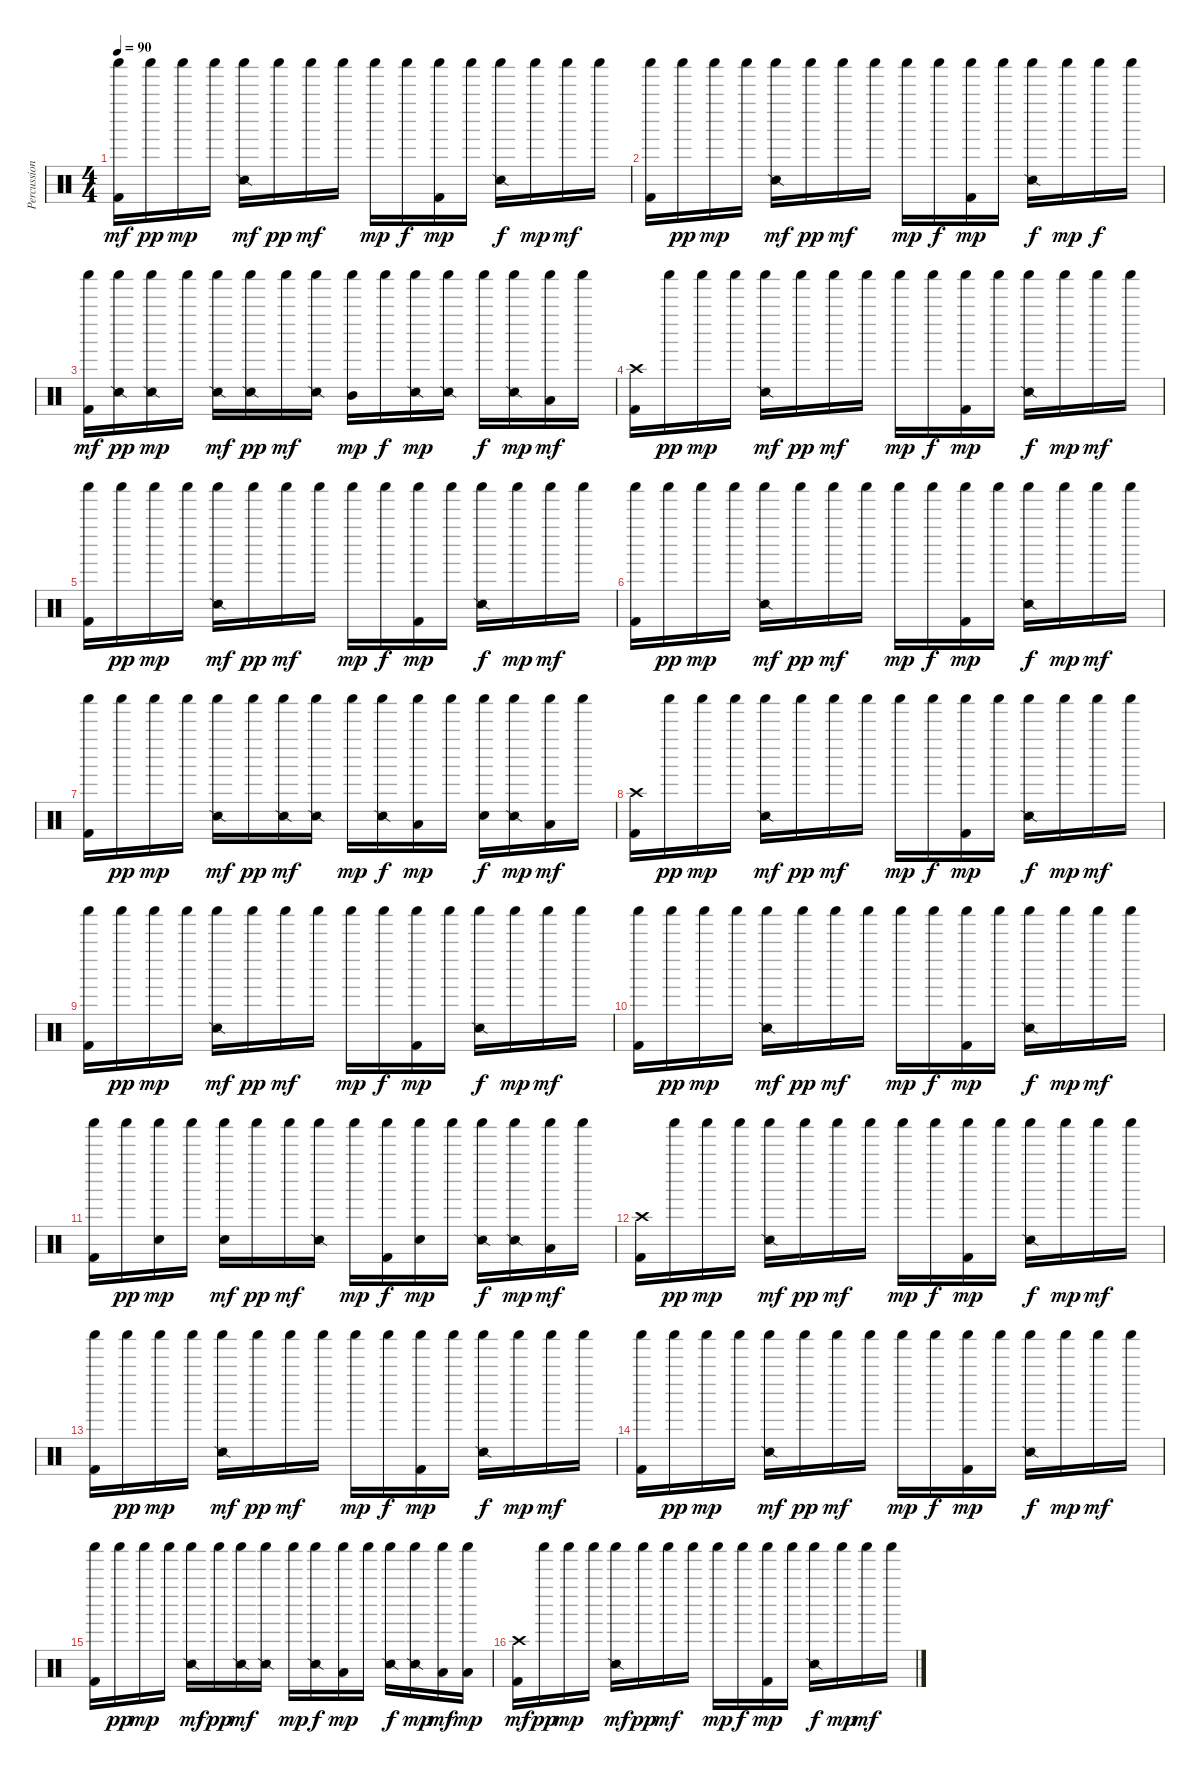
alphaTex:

\track ("Percussions" "Percussion") {instrument percussion}
\staff {score}
\articulation defaults
\ts (4 4)
\tempo 90
\clef neutral
\ks c
("Shaker (hit)" "Kick (hit) 2").16{dy mf} "Shaker (hit)".16{dy pp} "Shaker (hit)".16{dy mp} "Shaker (hit)".16 ("Shaker (hit)" "Snare (side stick) 2").16{dy mf} "Shaker (hit)".16{dy pp} "Shaker (hit)".16{dy mf} "Shaker (hit)".16 "Shaker (hit)".16{dy mp} "Shaker (hit)".16{dy f} ("Shaker (hit)" "Kick (hit) 2").16{dy mp} "Shaker (hit)".16 ("Shaker (hit)" "Snare (side stick) 2").16{dy f} "Shaker (hit)".16{dy mp} "Shaker (hit)".16{dy mf} "Shaker (hit)".16 |
("Shaker (hit)" "Kick (hit) 2").16 "Shaker (hit)".16{dy pp} "Shaker (hit)".16{dy mp} "Shaker (hit)".16 ("Shaker (hit)" "Snare (side stick) 2").16{dy mf} "Shaker (hit)".16{dy pp} "Shaker (hit)".16{dy mf} "Shaker (hit)".16 "Shaker (hit)".16{dy mp} "Shaker (hit)".16{dy f} ("Shaker (hit)" "Kick (hit) 2").16{dy mp} "Shaker (hit)".16 ("Shaker (hit)" "Snare (side stick) 2").16{dy f} "Shaker (hit)".16{dy mp} "Shaker (hit)".16{dy f} "Shaker (hit)".16 |
("Shaker (hit)" "Kick (hit) 2").16{dy mf} ("Shaker (hit)" "Snare (side stick) 2").16{dy pp} ("Shaker (hit)" "Snare (side stick) 2").16{dy mp} "Shaker (hit)".16 ("Shaker (hit)" "Snare (side stick) 2").16{dy mf} ("Shaker (hit)" "Snare (side stick) 2").16{dy pp} "Shaker (hit)".16{dy mf} ("Shaker (hit)" "Snare (side stick) 2").16 ("Shaker (hit)" "Mid Tom (hit)").16{dy mp} "Shaker (hit)".16{dy f} ("Shaker (hit)" "Snare (side stick) 2").16{dy mp} ("Shaker (hit)" "Snare (side stick) 2").16 "Shaker (hit)".16{dy f} ("Shaker (hit)" "Snare (side stick) 2").16{dy mp} ("Shaker (hit)" "Low Tom (hit)").16{dy mf} "Shaker (hit)".16 |
("Crash high (hit)" "Kick (hit) 2").16 "Shaker (hit)".16{dy pp} "Shaker (hit)".16{dy mp} "Shaker (hit)".16 ("Shaker (hit)" "Snare (side stick) 2").16{dy mf} "Shaker (hit)".16{dy pp} "Shaker (hit)".16{dy mf} "Shaker (hit)".16 "Shaker (hit)".16{dy mp} "Shaker (hit)".16{dy f} ("Shaker (hit)" "Kick (hit) 2").16{dy mp} "Shaker (hit)".16 ("Shaker (hit)" "Snare (side stick) 2").16{dy f} "Shaker (hit)".16{dy mp} "Shaker (hit)".16{dy mf} "Shaker (hit)".16 |
("Shaker (hit)" "Kick (hit) 2").16 "Shaker (hit)".16{dy pp} "Shaker (hit)".16{dy mp} "Shaker (hit)".16 ("Shaker (hit)" "Snare (side stick) 2").16{dy mf} "Shaker (hit)".16{dy pp} "Shaker (hit)".16{dy mf} "Shaker (hit)".16 "Shaker (hit)".16{dy mp} "Shaker (hit)".16{dy f} ("Shaker (hit)" "Kick (hit) 2").16{dy mp} "Shaker (hit)".16 ("Shaker (hit)" "Snare (side stick) 2").16{dy f} "Shaker (hit)".16{dy mp} "Shaker (hit)".16{dy mf} "Shaker (hit)".16 |
("Shaker (hit)" "Kick (hit) 2").16 "Shaker (hit)".16{dy pp} "Shaker (hit)".16{dy mp} "Shaker (hit)".16 ("Shaker (hit)" "Snare (side stick) 2").16{dy mf} "Shaker (hit)".16{dy pp} "Shaker (hit)".16{dy mf} "Shaker (hit)".16 "Shaker (hit)".16{dy mp} "Shaker (hit)".16{dy f} ("Shaker (hit)" "Kick (hit) 2").16{dy mp} "Shaker (hit)".16 ("Shaker (hit)" "Snare (side stick) 2").16{dy f} "Shaker (hit)".16{dy mp} "Shaker (hit)".16{dy mf} "Shaker (hit)".16 |
("Shaker (hit)" "Kick (hit) 2").16 "Shaker (hit)".16{dy pp} "Shaker (hit)".16{dy mp} "Shaker (hit)".16 ("Shaker (hit)" "Snare (side stick) 2").16{dy mf} "Shaker (hit)".16{dy pp} ("Shaker (hit)" "Snare (side stick) 2").16{dy mf} ("Shaker (hit)" "Snare (side stick) 2").16 "Shaker (hit)".16{dy mp} ("Shaker (hit)" "Snare (side stick) 2").16{dy f} ("Shaker (hit)" "Low Tom (hit)").16{dy mp} "Shaker (hit)".16 ("Shaker (hit)" "Metronome (bell)").16{dy f} ("Shaker (hit)" "Snare (side stick) 2").16{dy mp} ("Shaker (hit)" "Low Tom (hit)").16{dy mf} "Shaker (hit)".16 |
("Crash high (hit)" "Kick (hit) 2").16 "Shaker (hit)".16{dy pp} "Shaker (hit)".16{dy mp} "Shaker (hit)".16 ("Shaker (hit)" "Snare (side stick) 2").16{dy mf} "Shaker (hit)".16{dy pp} "Shaker (hit)".16{dy mf} "Shaker (hit)".16 "Shaker (hit)".16{dy mp} "Shaker (hit)".16{dy f} ("Shaker (hit)" "Kick (hit) 2").16{dy mp} "Shaker (hit)".16 ("Shaker (hit)" "Snare (side stick) 2").16{dy f} "Shaker (hit)".16{dy mp} "Shaker (hit)".16{dy mf} "Shaker (hit)".16 |
("Shaker (hit)" "Kick (hit) 2").16 "Shaker (hit)".16{dy pp} "Shaker (hit)".16{dy mp} "Shaker (hit)".16 ("Shaker (hit)" "Snare (side stick) 2").16{dy mf} "Shaker (hit)".16{dy pp} "Shaker (hit)".16{dy mf} "Shaker (hit)".16 "Shaker (hit)".16{dy mp} "Shaker (hit)".16{dy f} ("Shaker (hit)" "Kick (hit) 2").16{dy mp} "Shaker (hit)".16 ("Shaker (hit)" "Snare (side stick) 2").16{dy f} "Shaker (hit)".16{dy mp} "Shaker (hit)".16{dy mf} "Shaker (hit)".16 |
("Shaker (hit)" "Kick (hit) 2").16 "Shaker (hit)".16{dy pp} "Shaker (hit)".16{dy mp} "Shaker (hit)".16 ("Shaker (hit)" "Snare (side stick) 2").16{dy mf} "Shaker (hit)".16{dy pp} "Shaker (hit)".16{dy mf} "Shaker (hit)".16 "Shaker (hit)".16{dy mp} "Shaker (hit)".16{dy f} ("Shaker (hit)" "Kick (hit) 2").16{dy mp} "Shaker (hit)".16 ("Shaker (hit)" "Snare (side stick) 2").16{dy f} "Shaker (hit)".16{dy mp} "Shaker (hit)".16{dy mf} "Shaker (hit)".16 |
("Shaker (hit)" "Kick (hit) 2").16 "Shaker (hit)".16{dy pp} ("Shaker (hit)" "Electric Snare (hit)").16{dy mp} "Shaker (hit)".16 ("Shaker (hit)" "Electric Snare (hit)").16{dy mf} "Shaker (hit)".16{dy pp} "Shaker (hit)".16{dy mf} ("Shaker (hit)" "Snare (side stick) 2").16 "Shaker (hit)".16{dy mp} ("Shaker (hit)" "Kick (hit) 2").16{dy f} ("Shaker (hit)" "Metronome (bell)").16{dy mp} "Shaker (hit)".16 ("Shaker (hit)" "Snare (side stick) 2").16{dy f} ("Shaker (hit)" "Snare (side stick) 2").16{dy mp} ("Shaker (hit)" "Low Tom (hit)").16{dy mf} "Shaker (hit)".16 |
("Crash high (hit)" "Kick (hit) 2").16 "Shaker (hit)".16{dy pp} "Shaker (hit)".16{dy mp} "Shaker (hit)".16 ("Shaker (hit)" "Snare (side stick) 2").16{dy mf} "Shaker (hit)".16{dy pp} "Shaker (hit)".16{dy mf} "Shaker (hit)".16 "Shaker (hit)".16{dy mp} "Shaker (hit)".16{dy f} ("Shaker (hit)" "Kick (hit) 2").16{dy mp} "Shaker (hit)".16 ("Shaker (hit)" "Snare (side stick) 2").16{dy f} "Shaker (hit)".16{dy mp} "Shaker (hit)".16{dy mf} "Shaker (hit)".16 |
("Shaker (hit)" "Kick (hit) 2").16 "Shaker (hit)".16{dy pp} "Shaker (hit)".16{dy mp} "Shaker (hit)".16 ("Shaker (hit)" "Snare (side stick) 2").16{dy mf} "Shaker (hit)".16{dy pp} "Shaker (hit)".16{dy mf} "Shaker (hit)".16 "Shaker (hit)".16{dy mp} "Shaker (hit)".16{dy f} ("Shaker (hit)" "Kick (hit) 2").16{dy mp} "Shaker (hit)".16 ("Shaker (hit)" "Snare (side stick) 2").16{dy f} "Shaker (hit)".16{dy mp} "Shaker (hit)".16{dy mf} "Shaker (hit)".16 |
("Shaker (hit)" "Kick (hit) 2").16 "Shaker (hit)".16{dy pp} "Shaker (hit)".16{dy mp} "Shaker (hit)".16 ("Shaker (hit)" "Snare (side stick) 2").16{dy mf} "Shaker (hit)".16{dy pp} "Shaker (hit)".16{dy mf} "Shaker (hit)".16 "Shaker (hit)".16{dy mp} "Shaker (hit)".16{dy f} ("Shaker (hit)" "Kick (hit) 2").16{dy mp} "Shaker (hit)".16 ("Shaker (hit)" "Snare (side stick) 2").16{dy f} "Shaker (hit)".16{dy mp} "Shaker (hit)".16{dy mf} "Shaker (hit)".16 |
("Shaker (hit)" "Kick (hit) 2").16 "Shaker (hit)".16{dy pp} "Shaker (hit)".16{dy mp} "Shaker (hit)".16 ("Shaker (hit)" "Snare (side stick) 2").16{dy mf volume 12} "Shaker (hit)".16{dy pp} ("Shaker (hit)" "Snare (side stick) 2").16{dy mf} ("Shaker (hit)" "Snare (side stick) 2").16 "Shaker (hit)".16{dy mp} ("Shaker (hit)" "Snare (side stick) 2").16{dy f} ("Shaker (hit)" "Low Tom (hit)").16{dy mp} "Shaker (hit)".16 ("Shaker (hit)" "Snare (side stick) 2").16{dy f} ("Shaker (hit)" "Snare (side stick) 2").16{dy mp} ("Shaker (hit)" "Low Tom (hit)").16{dy mf} ("Shaker (hit)" "Low Tom (hit)").16{dy mp} |
("Crash high (hit)" "Kick (hit) 2").16{dy mf} "Shaker (hit)".16{dy pp} "Shaker (hit)".16{dy mp} "Shaker (hit)".16 ("Shaker (hit)" "Snare (side stick) 2").16{dy mf} "Shaker (hit)".16{dy pp} "Shaker (hit)".16{dy mf} "Shaker (hit)".16 "Shaker (hit)".16{dy mp volume 10} "Shaker (hit)".16{dy f} ("Shaker (hit)" "Kick (hit) 2").16{dy mp} "Shaker (hit)".16 ("Shaker (hit)" "Snare (side stick) 2").16{dy f} "Shaker (hit)".16{dy mp} "Shaker (hit)".16{dy mf} "Shaker (hit)".16
